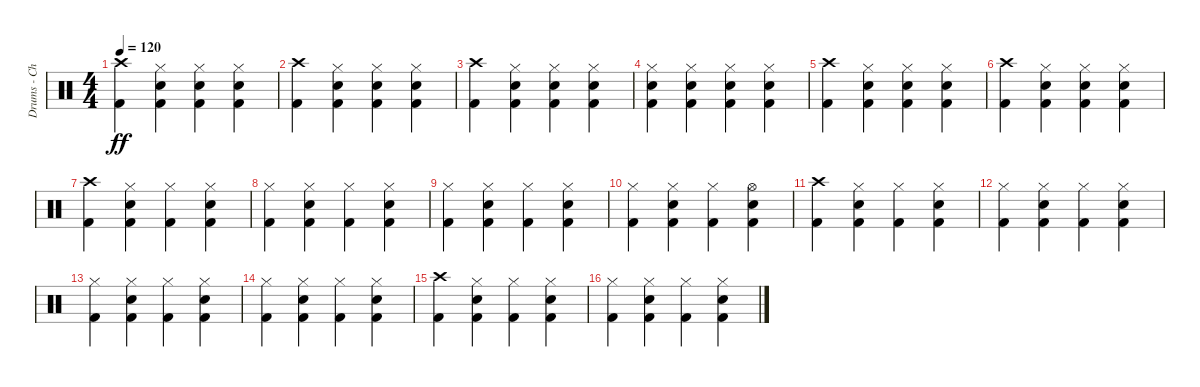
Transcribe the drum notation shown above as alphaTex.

\track ("Drums - Chris Frantz" "Drums - Ch") {instrument percussion}
\staff {score}
\articulation defaults
\ts (4 4)
\tempo 120
\clef neutral
\ks c
("Kick (hit) 2" "Crash high (hit)").4{dy ff} ("Kick (hit) 2" "Snare (hit) 2" "Hi-Hat (closed)").4 ("Kick (hit) 2" "Snare (hit) 2" "Hi-Hat (closed)").4 ("Kick (hit) 2" "Snare (hit) 2" "Hi-Hat (closed)").4 |
("Kick (hit) 2" "Crash high (hit)").4 ("Kick (hit) 2" "Snare (hit) 2" "Hi-Hat (closed)").4 ("Kick (hit) 2" "Snare (hit) 2" "Hi-Hat (closed)").4 ("Kick (hit) 2" "Snare (hit) 2" "Hi-Hat (closed)").4 |
("Kick (hit) 2" "Crash high (hit)").4 ("Kick (hit) 2" "Snare (hit) 2" "Hi-Hat (closed)").4 ("Kick (hit) 2" "Snare (hit) 2" "Hi-Hat (closed)").4 ("Kick (hit) 2" "Snare (hit) 2" "Hi-Hat (closed)").4 |
("Kick (hit) 2" "Snare (hit) 2" "Hi-Hat (closed)").4 ("Kick (hit) 2" "Snare (hit) 2" "Hi-Hat (closed)").4 ("Kick (hit) 2" "Snare (hit) 2" "Hi-Hat (closed)").4 ("Kick (hit) 2" "Snare (hit) 2" "Hi-Hat (closed)").4 |
("Kick (hit) 2" "Crash high (hit)").4 ("Kick (hit) 2" "Snare (hit) 2" "Hi-Hat (closed)").4 ("Kick (hit) 2" "Snare (hit) 2" "Hi-Hat (closed)").4 ("Kick (hit) 2" "Snare (hit) 2" "Hi-Hat (closed)").4 |
("Kick (hit) 2" "Crash high (hit)").4 ("Kick (hit) 2" "Snare (hit) 2" "Hi-Hat (closed)").4 ("Kick (hit) 2" "Snare (hit) 2" "Hi-Hat (closed)").4 ("Kick (hit) 2" "Snare (hit) 2" "Hi-Hat (closed)").4 |
("Kick (hit) 2" "Crash high (hit)").4 ("Kick (hit) 2" "Snare (hit) 2" "Hi-Hat (closed)").4 ("Kick (hit) 2" "Hi-Hat (closed)").4 ("Kick (hit) 2" "Snare (hit) 2" "Hi-Hat (closed)").4 |
("Kick (hit) 2" "Hi-Hat (closed)").4 ("Kick (hit) 2" "Snare (hit) 2" "Hi-Hat (closed)").4 ("Kick (hit) 2" "Hi-Hat (closed)").4 ("Kick (hit) 2" "Snare (hit) 2" "Hi-Hat (closed)").4 |
("Kick (hit) 2" "Hi-Hat (closed)").4 ("Kick (hit) 2" "Snare (hit) 2" "Hi-Hat (closed)").4 ("Kick (hit) 2" "Hi-Hat (closed)").4 ("Kick (hit) 2" "Snare (hit) 2" "Hi-Hat (closed)").4 |
("Kick (hit) 2" "Hi-Hat (closed)").4 ("Kick (hit) 2" "Snare (hit) 2" "Hi-Hat (closed)").4 ("Kick (hit) 2" "Hi-Hat (closed)").4 ("Kick (hit) 2" "Snare (hit) 2" "Hi-Hat (open)").4 |
("Kick (hit) 2" "Crash high (hit)").4 ("Kick (hit) 2" "Snare (hit) 2" "Hi-Hat (closed)").4 ("Kick (hit) 2" "Hi-Hat (closed)").4 ("Kick (hit) 2" "Snare (hit) 2" "Hi-Hat (closed)").4 |
("Kick (hit) 2" "Hi-Hat (closed)").4 ("Kick (hit) 2" "Snare (hit) 2" "Hi-Hat (closed)").4 ("Kick (hit) 2" "Hi-Hat (closed)").4 ("Kick (hit) 2" "Snare (hit) 2" "Hi-Hat (closed)").4 |
("Kick (hit) 2" "Hi-Hat (closed)").4 ("Kick (hit) 2" "Snare (hit) 2" "Hi-Hat (closed)").4 ("Kick (hit) 2" "Hi-Hat (closed)").4 ("Kick (hit) 2" "Snare (hit) 2" "Hi-Hat (closed)").4 |
("Kick (hit) 2" "Hi-Hat (closed)").4 ("Kick (hit) 2" "Snare (hit) 2" "Hi-Hat (closed)").4 ("Kick (hit) 2" "Hi-Hat (closed)").4 ("Kick (hit) 2" "Snare (hit) 2" "Hi-Hat (closed)").4 |
("Kick (hit) 2" "Crash high (hit)").4 ("Kick (hit) 2" "Snare (hit) 2" "Hi-Hat (closed)").4 ("Kick (hit) 2" "Hi-Hat (closed)").4 ("Kick (hit) 2" "Snare (hit) 2" "Hi-Hat (closed)").4 |
("Kick (hit) 2" "Hi-Hat (closed)").4 ("Kick (hit) 2" "Snare (hit) 2" "Hi-Hat (closed)").4 ("Kick (hit) 2" "Hi-Hat (closed)").4 ("Kick (hit) 2" "Snare (hit) 2" "Hi-Hat (closed)").4
